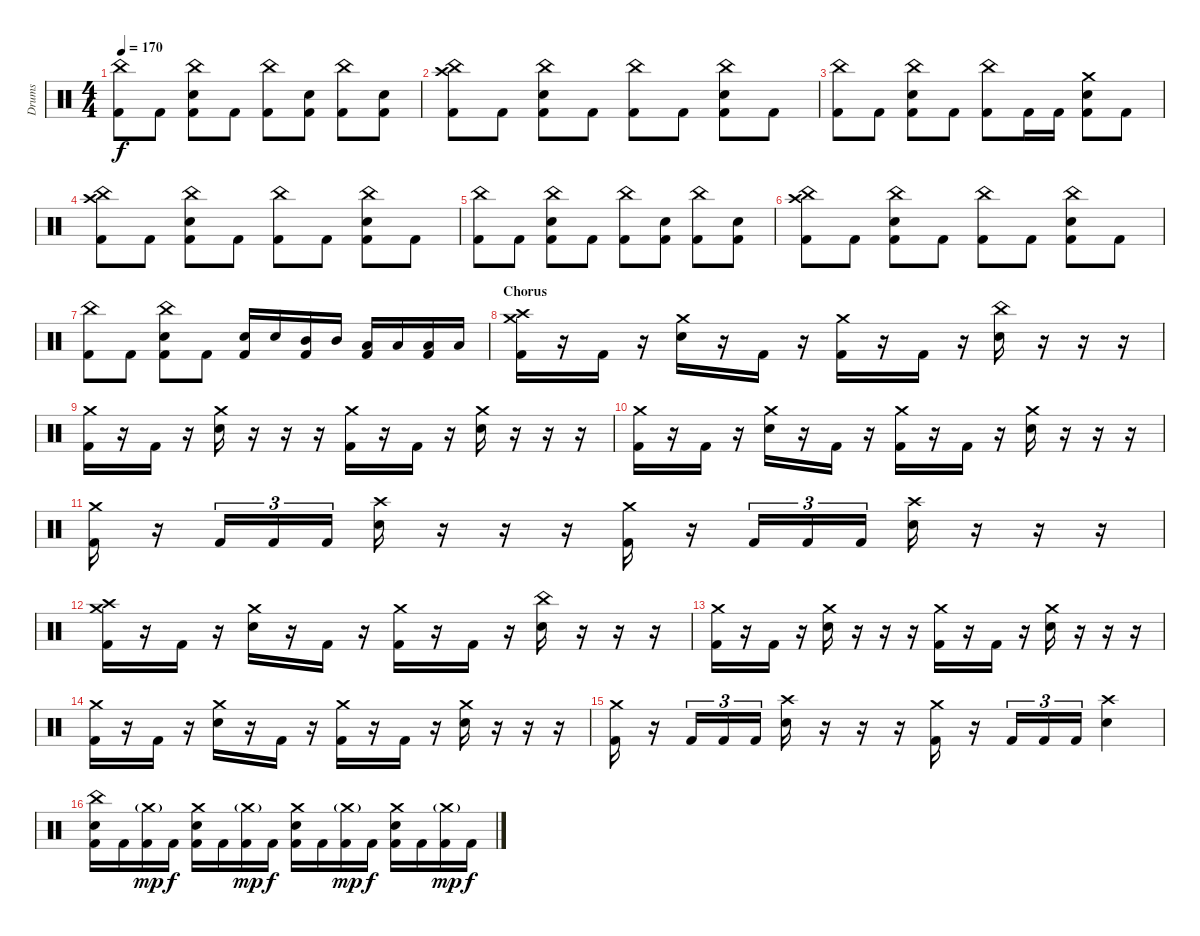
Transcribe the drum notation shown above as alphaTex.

\track ("Drums" "Drums") {instrument percussion}
\staff {score}
\articulation defaults
\ts (4 4)
\tempo 170
\clef neutral
\ks c
("China (hit)" "Kick (hit) 2").8{dy f} "Kick (hit) 2".8 ("China (hit)" "Electric Snare (hit)" "Kick (hit) 2").8 "Kick (hit) 2".8 ("China (hit)" "Kick (hit) 2").8 ("Electric Snare (hit)" "Kick (hit) 2").8 ("China (hit)" "Kick (hit) 2").8 ("Electric Snare (hit)" "Kick (hit) 2").8 |
("China (hit)" "Crash high (hit)" "Kick (hit) 2").8 "Kick (hit) 2".8 ("China (hit)" "Electric Snare (hit)" "Kick (hit) 2").8 "Kick (hit) 2".8 ("China (hit)" "Kick (hit) 2").8 "Kick (hit) 2".8 ("China (hit)" "Electric Snare (hit)" "Kick (hit) 2").8 "Kick (hit) 2".8 |
("China (hit)" "Kick (hit) 2").8 "Kick (hit) 2".8 ("China (hit)" "Electric Snare (hit)" "Kick (hit) 2").8 "Kick (hit) 2".8 ("China (hit)" "Kick (hit) 2").8 "Kick (hit) 2".16 "Kick (hit) 2".16 ("Crash medium (hit)" "Electric Snare (hit)" "Kick (hit) 2").8 "Kick (hit) 2".8 |
("China (hit)" "Crash high (hit)" "Kick (hit) 2").8 "Kick (hit) 2".8 ("China (hit)" "Electric Snare (hit)" "Kick (hit) 2").8 "Kick (hit) 2".8 ("China (hit)" "Kick (hit) 2").8 "Kick (hit) 2".8 ("China (hit)" "Electric Snare (hit)" "Kick (hit) 2").8 "Kick (hit) 2".8 |
("China (hit)" "Kick (hit) 2").8 "Kick (hit) 2".8 ("China (hit)" "Electric Snare (hit)" "Kick (hit) 2").8 "Kick (hit) 2".8 ("China (hit)" "Kick (hit) 2").8 ("Electric Snare (hit)" "Kick (hit) 2").8 ("China (hit)" "Kick (hit) 2").8 ("Electric Snare (hit)" "Kick (hit) 2").8 |
("China (hit)" "Crash high (hit)" "Kick (hit) 2").8 "Kick (hit) 2".8 ("China (hit)" "Electric Snare (hit)" "Kick (hit) 2").8 "Kick (hit) 2".8 ("China (hit)" "Kick (hit) 2").8 "Kick (hit) 2".8 ("China (hit)" "Electric Snare (hit)" "Kick (hit) 2").8 "Kick (hit) 2".8 |
("China (hit)" "Kick (hit) 2").8 "Kick (hit) 2".8 ("China (hit)" "Electric Snare (hit)" "Kick (hit) 2").8 "Kick (hit) 2".8 ("Electric Snare (hit)" "Kick (hit) 2").16 "Electric Snare (hit)".16 ("Mid Tom (hit)" "Kick (hit) 2").16 "Mid Tom (hit)".16 ("Low Tom (hit)" "Kick (hit) 2").16 "Low Tom (hit)".16 ("Low Floor Tom (hit)" "Kick (hit) 2").16 "Low Floor Tom (hit)".16 |
\section ("" "Chorus")
("Crash medium (hit)" "Crash high (hit)" "Kick (hit) 2").16 r.16 "Kick (hit) 2".16 r.16 ("Crash medium (hit)" "Electric Snare (hit)").16 r.16 "Kick (hit) 2".16 r.16 ("Crash medium (hit)" "Kick (hit) 2").16 r.16 "Kick (hit) 2".16 r.16 ("China (hit)" "Electric Snare (hit)").16 r.16 r.16 r.16 |
("Crash medium (hit)" "Kick (hit) 2").16 r.16 "Kick (hit) 2".16 r.16 ("Crash medium (hit)" "Electric Snare (hit)").16 r.16 r.16 r.16 ("Crash medium (hit)" "Kick (hit) 2").16 r.16 "Kick (hit) 2".16 r.16 ("Crash medium (hit)" "Electric Snare (hit)").16 r.16 r.16 r.16 |
("Crash medium (hit)" "Kick (hit) 2").16 r.16 "Kick (hit) 2".16 r.16 ("Crash medium (hit)" "Electric Snare (hit)").16 r.16 "Kick (hit) 2".16 r.16 ("Crash medium (hit)" "Kick (hit) 2").16 r.16 "Kick (hit) 2".16 r.16 ("Crash medium (hit)" "Electric Snare (hit)").16 r.16 r.16 r.16 |
("Crash medium (hit)" "Kick (hit) 2").16 r.16 "Kick (hit) 2".16{tu (3 2)} "Kick (hit) 2".16{tu (3 2)} "Kick (hit) 2".16{tu (3 2)} ("Crash high (hit)" "Electric Snare (hit)").16 r.16 r.16 r.16 ("Crash medium (hit)" "Kick (hit) 2").16 r.16 "Kick (hit) 2".16{tu (3 2)} "Kick (hit) 2".16{tu (3 2)} "Kick (hit) 2".16{tu (3 2)} ("Crash high (hit)" "Electric Snare (hit)").16 r.16 r.16 r.16 |
("Crash medium (hit)" "Crash high (hit)" "Kick (hit) 2").16 r.16 "Kick (hit) 2".16 r.16 ("Crash medium (hit)" "Electric Snare (hit)").16 r.16 "Kick (hit) 2".16 r.16 ("Crash medium (hit)" "Kick (hit) 2").16 r.16 "Kick (hit) 2".16 r.16 ("China (hit)" "Electric Snare (hit)").16 r.16 r.16 r.16 |
("Crash medium (hit)" "Kick (hit) 2").16 r.16 "Kick (hit) 2".16 r.16 ("Crash medium (hit)" "Electric Snare (hit)").16 r.16 r.16 r.16 ("Crash medium (hit)" "Kick (hit) 2").16 r.16 "Kick (hit) 2".16 r.16 ("Crash medium (hit)" "Electric Snare (hit)").16 r.16 r.16 r.16 |
("Crash medium (hit)" "Kick (hit) 2").16 r.16 "Kick (hit) 2".16 r.16 ("Crash medium (hit)" "Electric Snare (hit)").16 r.16 "Kick (hit) 2".16 r.16 ("Crash medium (hit)" "Kick (hit) 2").16 r.16 "Kick (hit) 2".16 r.16 ("Crash medium (hit)" "Electric Snare (hit)").16 r.16 r.16 r.16 |
("Crash medium (hit)" "Kick (hit) 2").16 r.16 "Kick (hit) 2".16{tu (3 2)} "Kick (hit) 2".16{tu (3 2)} "Kick (hit) 2".16{tu (3 2)} ("Crash high (hit)" "Electric Snare (hit)").16 r.16 r.16 r.16 ("Crash medium (hit)" "Kick (hit) 2").16 r.16 "Kick (hit) 2".16{tu (3 2)} "Kick (hit) 2".16{tu (3 2)} "Kick (hit) 2".16{tu (3 2)} ("Crash high (hit)" "Electric Snare (hit)").4 |
("China (hit)" "Electric Snare (hit)" "Kick (hit) 2").16 "Kick (hit) 2".16 ("Crash medium (hit)"{g} "Kick (hit) 2").16{dy mp} "Kick (hit) 2".16{dy f} ("Crash medium (hit)" "Electric Snare (hit)" "Kick (hit) 2").16 "Kick (hit) 2".16 ("Crash medium (hit)"{g} "Kick (hit) 2").16{dy mp} "Kick (hit) 2".16{dy f} ("Crash medium (hit)" "Electric Snare (hit)" "Kick (hit) 2").16 "Kick (hit) 2".16 ("Crash medium (hit)"{g} "Kick (hit) 2").16{dy mp} "Kick (hit) 2".16{dy f} ("Crash medium (hit)" "Electric Snare (hit)" "Kick (hit) 2").16 "Kick (hit) 2".16 ("Crash medium (hit)"{g} "Kick (hit) 2").16{dy mp} "Kick (hit) 2".16{dy f}
